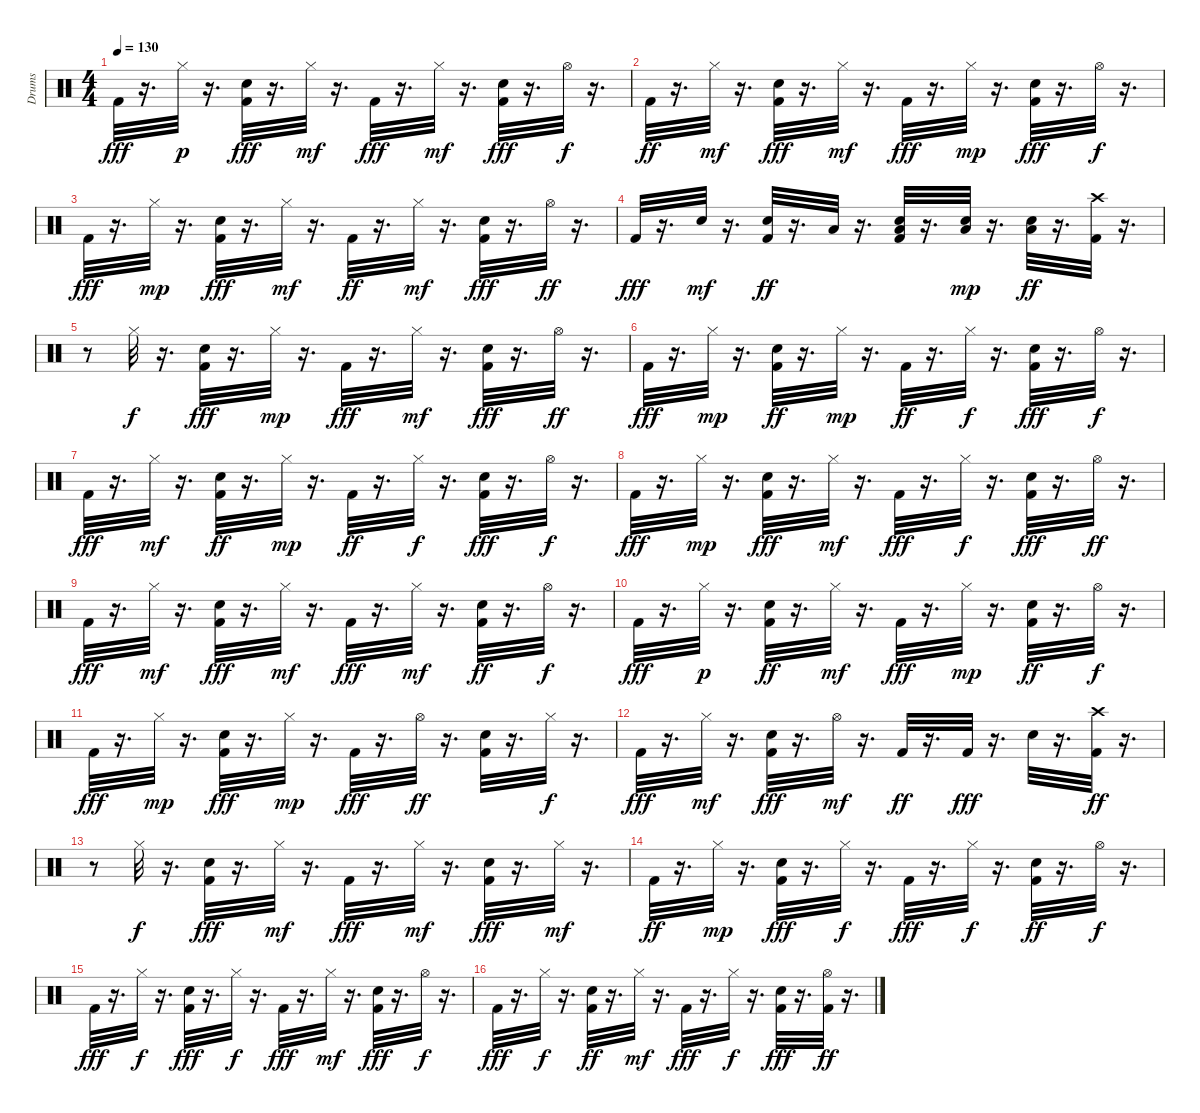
\track ("Drums               " "Drums     ") {instrument percussion}
\staff {score}
\articulation defaults
\ts (4 4)
\tempo 130
\clef neutral
\ks c "Kick (hit) 2".32{dy fff}
r.16{d} "Hi-Hat (closed)".32{dy p} r.16{d} ("Kick (hit) 2" "Snare (hit) 2").32{dy fff} r.16{d} "Hi-Hat (closed)".32{dy mf} r.16{d} "Kick (hit) 2".32{dy fff} r.16{d} "Hi-Hat (closed)".32{dy mf} r.16{d} ("Kick (hit) 2" "Snare (hit) 2").32{dy fff} r.16{d} "Hi-Hat (open)".32{dy f} r.16{d} |
"Kick (hit) 2".32{dy ff} r.16{d} "Hi-Hat (closed)".32{dy mf} r.16{d} ("Kick (hit) 2" "Snare (hit) 2").32{dy fff} r.16{d} "Hi-Hat (closed)".32{dy mf} r.16{d} "Kick (hit) 2".32{dy fff} r.16{d} "Hi-Hat (closed)".32{dy mp} r.16{d} ("Kick (hit) 2" "Snare (hit) 2").32{dy fff} r.16{d} "Hi-Hat (open)".32{dy f} r.16{d} |
"Kick (hit) 2".32{dy fff} r.16{d} "Hi-Hat (closed)".32{dy mp} r.16{d} ("Kick (hit) 2" "Snare (hit) 2").32{dy fff} r.16{d} "Hi-Hat (closed)".32{dy mf} r.16{d} "Kick (hit) 2".32{dy ff} r.16{d} "Hi-Hat (closed)".32{dy mf} r.16{d} ("Kick (hit) 2" "Snare (hit) 2").32{dy fff} r.16{d} "Hi-Hat (open)".32{dy ff} r.16{d} |
"Kick (hit) 2".32{dy fff} r.16{d} "Snare (hit) 2".32{dy mf} r.16{d} ("Kick (hit) 2" "Snare (hit) 2").32{dy ff} r.16{d} "Low Tom (hit)".32 r.16{d} ("Kick (hit) 2" "Snare (hit) 2" "Low Tom (hit)").32 r.16{d} ("Snare (hit) 2" "Low Floor Tom (hit)").32{dy mp} r.16{d} ("Snare (hit) 2" "Low Floor Tom (hit)").32{dy ff} r.16{d} ("Kick (hit) 2" "Crash high (hit)").32 r.16{d} |
r.8 "Hi-Hat (closed)".32{dy f} r.16{d} ("Kick (hit) 2" "Snare (hit) 2").32{dy fff} r.16{d} "Hi-Hat (closed)".32{dy mp} r.16{d} "Kick (hit) 2".32{dy fff} r.16{d} "Hi-Hat (closed)".32{dy mf} r.16{d} ("Kick (hit) 2" "Snare (hit) 2").32{dy fff} r.16{d} "Hi-Hat (open)".32{dy ff} r.16{d} |
"Kick (hit) 2".32{dy fff} r.16{d} "Hi-Hat (closed)".32{dy mp} r.16{d} ("Kick (hit) 2" "Snare (hit) 2").32{dy ff} r.16{d} "Hi-Hat (closed)".32{dy mp} r.16{d} "Kick (hit) 2".32{dy ff} r.16{d} "Hi-Hat (closed)".32{dy f} r.16{d} ("Kick (hit) 2" "Snare (hit) 2").32{dy fff} r.16{d} "Hi-Hat (open)".32{dy f} r.16{d} |
"Kick (hit) 2".32{dy fff} r.16{d} "Hi-Hat (closed)".32{dy mf} r.16{d} ("Kick (hit) 2" "Snare (hit) 2").32{dy ff} r.16{d} "Hi-Hat (closed)".32{dy mp} r.16{d} "Kick (hit) 2".32{dy ff} r.16{d} "Hi-Hat (closed)".32{dy f} r.16{d} ("Kick (hit) 2" "Snare (hit) 2").32{dy fff} r.16{d} "Hi-Hat (open)".32{dy f} r.16{d} |
"Kick (hit) 2".32{dy fff} r.16{d} "Hi-Hat (closed)".32{dy mp} r.16{d} ("Kick (hit) 2" "Snare (hit) 2").32{dy fff} r.16{d} "Hi-Hat (closed)".32{dy mf} r.16{d} "Kick (hit) 2".32{dy fff} r.16{d} "Hi-Hat (closed)".32{dy f} r.16{d} ("Kick (hit) 2" "Snare (hit) 2").32{dy fff} r.16{d} "Hi-Hat (open)".32{dy ff} r.16{d} |
"Kick (hit) 2".32{dy fff} r.16{d} "Hi-Hat (closed)".32{dy mf} r.16{d} ("Kick (hit) 2" "Snare (hit) 2").32{dy fff} r.16{d} "Hi-Hat (closed)".32{dy mf} r.16{d} "Kick (hit) 2".32{dy fff} r.16{d} "Hi-Hat (closed)".32{dy mf} r.16{d} ("Kick (hit) 2" "Snare (hit) 2").32{dy ff} r.16{d} "Hi-Hat (open)".32{dy f} r.16{d} |
"Kick (hit) 2".32{dy fff} r.16{d} "Hi-Hat (closed)".32{dy p} r.16{d} ("Kick (hit) 2" "Snare (hit) 2").32{dy ff} r.16{d} "Hi-Hat (closed)".32{dy mf} r.16{d} "Kick (hit) 2".32{dy fff} r.16{d} "Hi-Hat (closed)".32{dy mp} r.16{d} ("Kick (hit) 2" "Snare (hit) 2").32{dy ff} r.16{d} "Hi-Hat (open)".32{dy f} r.16{d} |
"Kick (hit) 2".32{dy fff} r.16{d} "Hi-Hat (closed)".32{dy mp} r.16{d} ("Kick (hit) 2" "Snare (hit) 2").32{dy fff} r.16{d} "Hi-Hat (closed)".32{dy mp} r.16{d} "Kick (hit) 2".32{dy fff} r.16{d} "Hi-Hat (open)".32{dy ff} r.16{d} ("Kick (hit) 2" "Snare (hit) 2").32 r.16{d} "Hi-Hat (closed)".32{dy f} r.16{d} |
"Kick (hit) 2".32{dy fff} r.16{d} "Hi-Hat (closed)".32{dy mf} r.16{d} ("Kick (hit) 2" "Snare (hit) 2").32{dy fff} r.16{d} "Hi-Hat (open)".32{dy mf} r.16{d} "Kick (hit) 2".32{dy ff} r.16{d} "Kick (hit) 2".32{dy fff} r.16{d} "Snare (hit) 2".32 r.16{d} ("Kick (hit) 2" "Crash high (hit)").32{dy ff} r.16{d} |
r.8 "Hi-Hat (closed)".32{dy f} r.16{d} ("Kick (hit) 2" "Snare (hit) 2").32{dy fff} r.16{d} "Hi-Hat (closed)".32{dy mf} r.16{d} "Kick (hit) 2".32{dy fff} r.16{d} "Hi-Hat (closed)".32{dy mf} r.16{d} ("Kick (hit) 2" "Snare (hit) 2").32{dy fff} r.16{d} "Hi-Hat (closed)".32{dy mf} r.16{d} |
"Kick (hit) 2".32{dy ff} r.16{d} "Hi-Hat (closed)".32{dy mp} r.16{d} ("Kick (hit) 2" "Snare (hit) 2").32{dy fff} r.16{d} "Hi-Hat (closed)".32{dy f} r.16{d} "Kick (hit) 2".32{dy fff} r.16{d} "Hi-Hat (closed)".32{dy f} r.16{d} ("Kick (hit) 2" "Snare (hit) 2").32{dy ff} r.16{d} "Hi-Hat (open)".32{dy f} r.16{d} |
"Kick (hit) 2".32{dy fff} r.16{d} "Hi-Hat (closed)".32{dy f} r.16{d} ("Kick (hit) 2" "Snare (hit) 2").32{dy fff} r.16{d} "Hi-Hat (closed)".32{dy f} r.16{d} "Kick (hit) 2".32{dy fff} r.16{d} "Hi-Hat (closed)".32{dy mf} r.16{d} ("Kick (hit) 2" "Snare (hit) 2").32{dy fff} r.16{d} "Hi-Hat (open)".32{dy f} r.16{d} |
"Kick (hit) 2".32{dy fff} r.16{d} "Hi-Hat (closed)".32{dy f} r.16{d} ("Kick (hit) 2" "Snare (hit) 2").32{dy ff} r.16{d} "Hi-Hat (closed)".32{dy mf} r.16{d} "Kick (hit) 2".32{dy fff} r.16{d} "Hi-Hat (closed)".32{dy f} r.16{d} ("Kick (hit) 2" "Snare (hit) 2").32{dy fff} r.16{d} ("Kick (hit) 2" "Hi-Hat (open)").32{dy ff} r.16{d}
